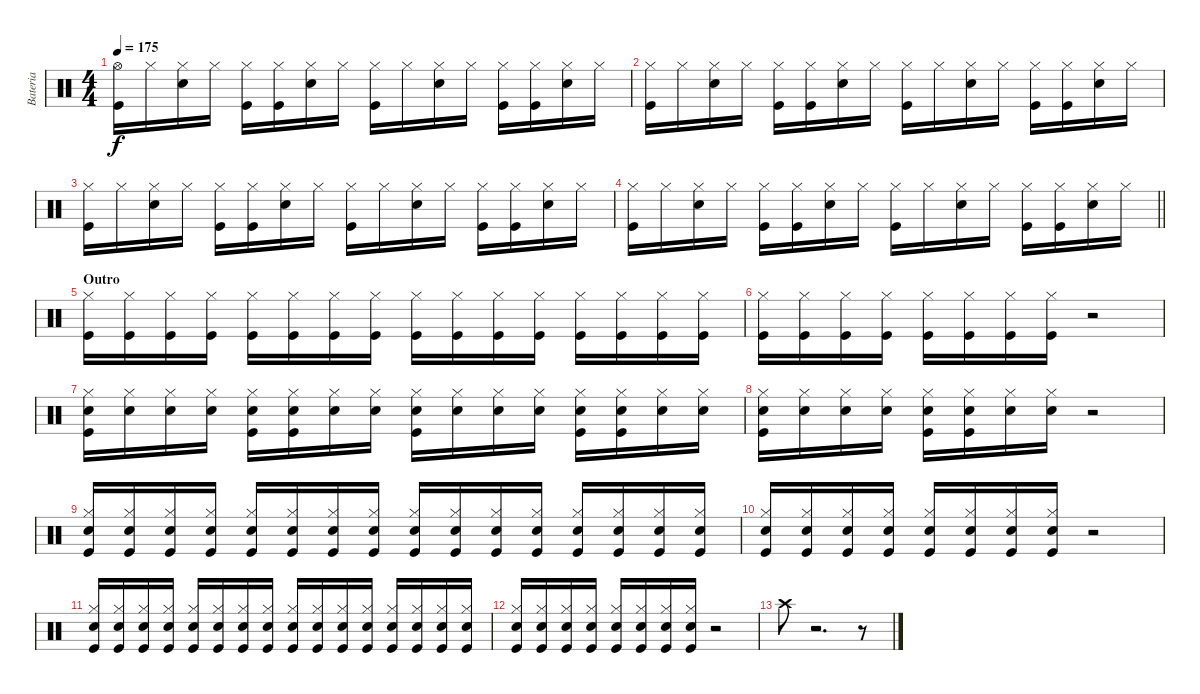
\track ("Bateria" "Bateria") {instrument percussion}
\staff {score}
\articulation defaults
\ts (4 4)
\tempo 175
\clef neutral
\ks c
("Hi-Hat (open)" "Kick (hit)").16{dy f} "Hi-Hat (closed)".16 ("Hi-Hat (closed)" "Electric Snare (hit)").16 "Hi-Hat (closed)".16 ("Hi-Hat (closed)" "Kick (hit)").16 ("Hi-Hat (closed)" "Kick (hit)").16 ("Hi-Hat (closed)" "Electric Snare (hit)").16 "Hi-Hat (closed)".16 ("Hi-Hat (closed)" "Kick (hit)").16 "Hi-Hat (closed)".16 ("Hi-Hat (closed)" "Electric Snare (hit)").16 "Hi-Hat (closed)".16 ("Hi-Hat (closed)" "Kick (hit)").16 ("Hi-Hat (closed)" "Kick (hit)").16 ("Hi-Hat (closed)" "Electric Snare (hit)").16 "Hi-Hat (closed)".16 |
("Hi-Hat (closed)" "Kick (hit)").16 "Hi-Hat (closed)".16 ("Hi-Hat (closed)" "Electric Snare (hit)").16 "Hi-Hat (closed)".16 ("Hi-Hat (closed)" "Kick (hit)").16 ("Hi-Hat (closed)" "Kick (hit)").16 ("Hi-Hat (closed)" "Electric Snare (hit)").16 "Hi-Hat (closed)".16 ("Hi-Hat (closed)" "Kick (hit)").16 "Hi-Hat (closed)".16 ("Hi-Hat (closed)" "Electric Snare (hit)").16 "Hi-Hat (closed)".16 ("Hi-Hat (closed)" "Kick (hit)").16 ("Hi-Hat (closed)" "Kick (hit)").16 ("Hi-Hat (closed)" "Electric Snare (hit)").16 "Hi-Hat (closed)".16 |
("Hi-Hat (closed)" "Kick (hit)").16 "Hi-Hat (closed)".16 ("Hi-Hat (closed)" "Electric Snare (hit)").16 "Hi-Hat (closed)".16 ("Hi-Hat (closed)" "Kick (hit)").16 ("Hi-Hat (closed)" "Kick (hit)").16 ("Hi-Hat (closed)" "Electric Snare (hit)").16 "Hi-Hat (closed)".16 ("Hi-Hat (closed)" "Kick (hit)").16 "Hi-Hat (closed)".16 ("Hi-Hat (closed)" "Electric Snare (hit)").16 "Hi-Hat (closed)".16 ("Hi-Hat (closed)" "Kick (hit)").16 ("Hi-Hat (closed)" "Kick (hit)").16 ("Hi-Hat (closed)" "Electric Snare (hit)").16 "Hi-Hat (closed)".16 |
\barLineRight lightlight
("Hi-Hat (closed)" "Kick (hit)").16 "Hi-Hat (closed)".16 ("Hi-Hat (closed)" "Electric Snare (hit)").16 "Hi-Hat (closed)".16 ("Hi-Hat (closed)" "Kick (hit)").16 ("Hi-Hat (closed)" "Kick (hit)").16 ("Hi-Hat (closed)" "Electric Snare (hit)").16 "Hi-Hat (closed)".16 ("Hi-Hat (closed)" "Kick (hit)").16 "Hi-Hat (closed)".16 ("Hi-Hat (closed)" "Electric Snare (hit)").16 "Hi-Hat (closed)".16 ("Hi-Hat (closed)" "Kick (hit)").16 ("Hi-Hat (closed)" "Kick (hit)").16 ("Hi-Hat (closed)" "Electric Snare (hit)").16 "Hi-Hat (closed)".16 |
\section ("" "Outro")
("Hi-Hat (closed)" "Kick (hit)").16 ("Hi-Hat (closed)" "Kick (hit)").16 ("Hi-Hat (closed)" "Kick (hit)").16 ("Hi-Hat (closed)" "Kick (hit)").16 ("Hi-Hat (closed)" "Kick (hit)").16 ("Hi-Hat (closed)" "Kick (hit)").16 ("Hi-Hat (closed)" "Kick (hit)").16 ("Hi-Hat (closed)" "Kick (hit)").16 ("Hi-Hat (closed)" "Kick (hit)").16 ("Hi-Hat (closed)" "Kick (hit)").16 ("Hi-Hat (closed)" "Kick (hit)").16 ("Hi-Hat (closed)" "Kick (hit)").16 ("Hi-Hat (closed)" "Kick (hit)").16 ("Hi-Hat (closed)" "Kick (hit)").16 ("Hi-Hat (closed)" "Kick (hit)").16 ("Hi-Hat (closed)" "Kick (hit)").16 |
("Hi-Hat (closed)" "Kick (hit)").16 ("Hi-Hat (closed)" "Kick (hit)").16 ("Hi-Hat (closed)" "Kick (hit)").16 ("Hi-Hat (closed)" "Kick (hit)").16 ("Hi-Hat (closed)" "Kick (hit)").16 ("Hi-Hat (closed)" "Kick (hit)").16 ("Hi-Hat (closed)" "Kick (hit)").16 ("Hi-Hat (closed)" "Kick (hit)").16 r.2 |
("Hi-Hat (closed)" "Electric Snare (hit)" "Kick (hit)").16 ("Hi-Hat (closed)" "Electric Snare (hit)").16 ("Hi-Hat (closed)" "Electric Snare (hit)").16 ("Hi-Hat (closed)" "Electric Snare (hit)").16 ("Hi-Hat (closed)" "Electric Snare (hit)" "Kick (hit)").16 ("Hi-Hat (closed)" "Electric Snare (hit)" "Kick (hit)").16 ("Hi-Hat (closed)" "Electric Snare (hit)").16 ("Hi-Hat (closed)" "Electric Snare (hit)").16 ("Hi-Hat (closed)" "Electric Snare (hit)" "Kick (hit)").16 ("Hi-Hat (closed)" "Electric Snare (hit)").16 ("Hi-Hat (closed)" "Electric Snare (hit)").16 ("Hi-Hat (closed)" "Electric Snare (hit)").16 ("Hi-Hat (closed)" "Electric Snare (hit)" "Kick (hit)").16 ("Hi-Hat (closed)" "Electric Snare (hit)" "Kick (hit)").16 ("Hi-Hat (closed)" "Electric Snare (hit)").16 ("Hi-Hat (closed)" "Electric Snare (hit)").16 |
("Hi-Hat (closed)" "Electric Snare (hit)" "Kick (hit)").16 ("Hi-Hat (closed)" "Electric Snare (hit)").16 ("Hi-Hat (closed)" "Electric Snare (hit)").16 ("Hi-Hat (closed)" "Electric Snare (hit)").16 ("Hi-Hat (closed)" "Electric Snare (hit)" "Kick (hit)").16 ("Hi-Hat (closed)" "Electric Snare (hit)" "Kick (hit)").16 ("Hi-Hat (closed)" "Electric Snare (hit)").16 ("Hi-Hat (closed)" "Electric Snare (hit)").16 r.2 |
("Hi-Hat (closed)" "Electric Snare (hit)" "Kick (hit)").16 ("Hi-Hat (closed)" "Electric Snare (hit)" "Kick (hit)").16 ("Hi-Hat (closed)" "Electric Snare (hit)" "Kick (hit)").16 ("Hi-Hat (closed)" "Electric Snare (hit)" "Kick (hit)").16 ("Hi-Hat (closed)" "Electric Snare (hit)" "Kick (hit)").16 ("Hi-Hat (closed)" "Electric Snare (hit)" "Kick (hit)").16 ("Hi-Hat (closed)" "Electric Snare (hit)" "Kick (hit)").16 ("Hi-Hat (closed)" "Electric Snare (hit)" "Kick (hit)").16 ("Hi-Hat (closed)" "Electric Snare (hit)" "Kick (hit)").16 ("Hi-Hat (closed)" "Electric Snare (hit)" "Kick (hit)").16 ("Hi-Hat (closed)" "Electric Snare (hit)" "Kick (hit)").16 ("Hi-Hat (closed)" "Electric Snare (hit)" "Kick (hit)").16 ("Hi-Hat (closed)" "Electric Snare (hit)" "Kick (hit)").16 ("Hi-Hat (closed)" "Electric Snare (hit)" "Kick (hit)").16 ("Hi-Hat (closed)" "Electric Snare (hit)" "Kick (hit)").16 ("Hi-Hat (closed)" "Electric Snare (hit)" "Kick (hit)").16 |
("Hi-Hat (closed)" "Electric Snare (hit)" "Kick (hit)").16 ("Hi-Hat (closed)" "Electric Snare (hit)" "Kick (hit)").16 ("Hi-Hat (closed)" "Electric Snare (hit)" "Kick (hit)").16 ("Hi-Hat (closed)" "Electric Snare (hit)" "Kick (hit)").16 ("Hi-Hat (closed)" "Electric Snare (hit)" "Kick (hit)").16 ("Hi-Hat (closed)" "Electric Snare (hit)" "Kick (hit)").16 ("Hi-Hat (closed)" "Electric Snare (hit)" "Kick (hit)").16 ("Hi-Hat (closed)" "Electric Snare (hit)" "Kick (hit)").16 r.2 |
("Hi-Hat (closed)" "Electric Snare (hit)" "Kick (hit)").16 ("Hi-Hat (closed)" "Electric Snare (hit)" "Kick (hit)").16 ("Hi-Hat (closed)" "Electric Snare (hit)" "Kick (hit)").16 ("Hi-Hat (closed)" "Electric Snare (hit)" "Kick (hit)").16 ("Hi-Hat (closed)" "Electric Snare (hit)" "Kick (hit)").16 ("Hi-Hat (closed)" "Electric Snare (hit)" "Kick (hit)").16 ("Hi-Hat (closed)" "Electric Snare (hit)" "Kick (hit)").16 ("Hi-Hat (closed)" "Electric Snare (hit)" "Kick (hit)").16 ("Hi-Hat (closed)" "Electric Snare (hit)" "Kick (hit)").16 ("Hi-Hat (closed)" "Electric Snare (hit)" "Kick (hit)").16 ("Hi-Hat (closed)" "Electric Snare (hit)" "Kick (hit)").16 ("Hi-Hat (closed)" "Electric Snare (hit)" "Kick (hit)").16 ("Hi-Hat (closed)" "Electric Snare (hit)" "Kick (hit)").16 ("Hi-Hat (closed)" "Electric Snare (hit)" "Kick (hit)").16 ("Hi-Hat (closed)" "Electric Snare (hit)" "Kick (hit)").16 ("Hi-Hat (closed)" "Electric Snare (hit)" "Kick (hit)").16 |
("Hi-Hat (closed)" "Electric Snare (hit)" "Kick (hit)").16 ("Hi-Hat (closed)" "Electric Snare (hit)" "Kick (hit)").16 ("Hi-Hat (closed)" "Electric Snare (hit)" "Kick (hit)").16 ("Hi-Hat (closed)" "Electric Snare (hit)" "Kick (hit)").16 ("Hi-Hat (closed)" "Electric Snare (hit)" "Kick (hit)").16 ("Hi-Hat (closed)" "Electric Snare (hit)" "Kick (hit)").16 ("Hi-Hat (closed)" "Electric Snare (hit)" "Kick (hit)").16 ("Hi-Hat (closed)" "Electric Snare (hit)" "Kick (hit)").16 r.2 |
"Crash high (hit)".8 r.2{d} r.8
